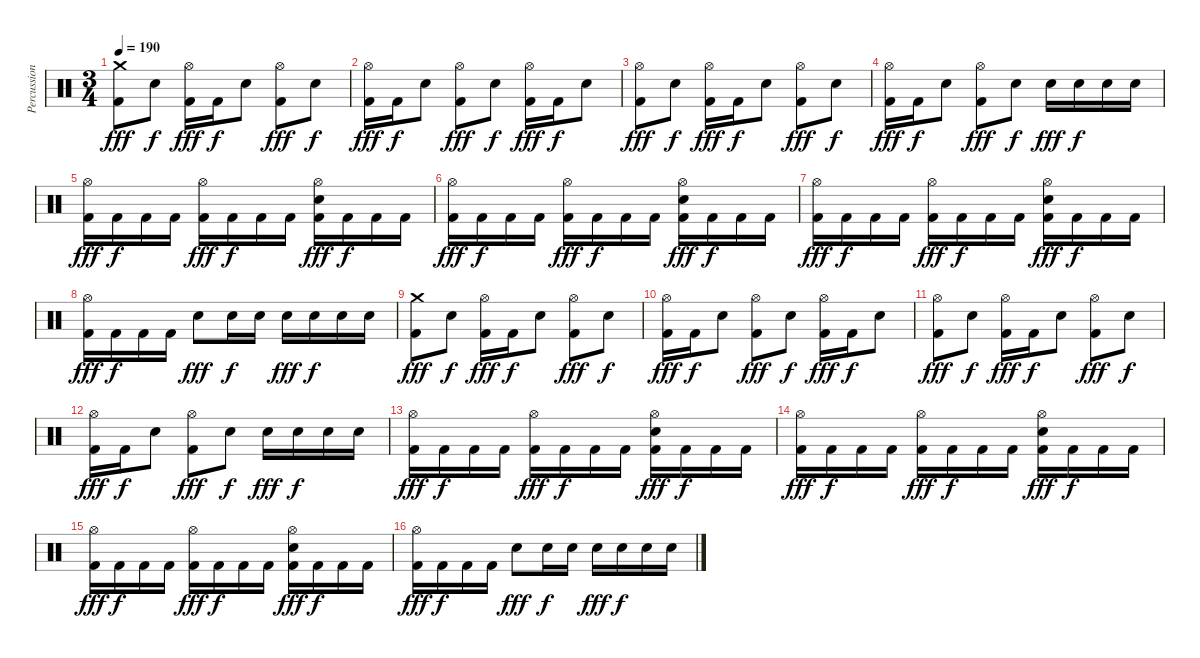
\track ("Percussions" "Percussion") {instrument percussion}
\staff {score}
\articulation defaults
\ts (3 4)
\tempo 190
\clef neutral
\ks c
("Crash medium (hit)" "Kick (hit) 2").8{dy fff} "Snare (hit) 2".8{dy f} ("Hi-Hat (open)" "Kick (hit) 2").16{dy fff} "Kick (hit) 2".16{dy f} "Snare (hit) 2".8 ("Hi-Hat (open)" "Kick (hit) 2").8{dy fff} "Snare (hit) 2".8{dy f} |
("Hi-Hat (open)" "Kick (hit) 2").16{dy fff} "Kick (hit) 2".16{dy f} "Snare (hit) 2".8 ("Hi-Hat (open)" "Kick (hit) 2").8{dy fff} "Snare (hit) 2".8{dy f} ("Hi-Hat (open)" "Kick (hit) 2").16{dy fff} "Kick (hit) 2".16{dy f} "Snare (hit) 2".8 |
("Hi-Hat (open)" "Kick (hit) 2").8{dy fff} "Snare (hit) 2".8{dy f} ("Hi-Hat (open)" "Kick (hit) 2").16{dy fff} "Kick (hit) 2".16{dy f} "Snare (hit) 2".8 ("Hi-Hat (open)" "Kick (hit) 2").8{dy fff} "Snare (hit) 2".8{dy f} |
("Hi-Hat (open)" "Kick (hit) 2").16{dy fff} "Kick (hit) 2".16{dy f} "Snare (hit) 2".8 ("Hi-Hat (open)" "Kick (hit) 2").8{dy fff} "Snare (hit) 2".8{dy f} "Snare (hit) 2".16{dy fff} "Snare (hit) 2".16{dy f} "Snare (hit) 2".16 "Snare (hit) 2".16 |
("Hi-Hat (open)" "Kick (hit) 2").16{dy fff} "Kick (hit) 2".16{dy f} "Kick (hit) 2".16 "Kick (hit) 2".16 ("Hi-Hat (open)" "Kick (hit) 2").16{dy fff} "Kick (hit) 2".16{dy f} "Kick (hit) 2".16 "Kick (hit) 2".16 ("Hi-Hat (open)" "Snare (hit) 2" "Kick (hit) 2").16{dy fff} "Kick (hit) 2".16{dy f} "Kick (hit) 2".16 "Kick (hit) 2".16 |
("Hi-Hat (open)" "Kick (hit) 2").16{dy fff} "Kick (hit) 2".16{dy f} "Kick (hit) 2".16 "Kick (hit) 2".16 ("Hi-Hat (open)" "Kick (hit) 2").16{dy fff} "Kick (hit) 2".16{dy f} "Kick (hit) 2".16 "Kick (hit) 2".16 ("Hi-Hat (open)" "Snare (hit) 2" "Kick (hit) 2").16{dy fff} "Kick (hit) 2".16{dy f} "Kick (hit) 2".16 "Kick (hit) 2".16 |
("Hi-Hat (open)" "Kick (hit) 2").16{dy fff} "Kick (hit) 2".16{dy f} "Kick (hit) 2".16 "Kick (hit) 2".16 ("Hi-Hat (open)" "Kick (hit) 2").16{dy fff} "Kick (hit) 2".16{dy f} "Kick (hit) 2".16 "Kick (hit) 2".16 ("Hi-Hat (open)" "Snare (hit) 2" "Kick (hit) 2").16{dy fff} "Kick (hit) 2".16{dy f} "Kick (hit) 2".16 "Kick (hit) 2".16 |
("Hi-Hat (open)" "Kick (hit) 2").16{dy fff} "Kick (hit) 2".16{dy f} "Kick (hit) 2".16 "Kick (hit) 2".16 "Snare (hit) 2".8{dy fff} "Snare (hit) 2".16{dy f} "Snare (hit) 2".16 "Snare (hit) 2".16{dy fff} "Snare (hit) 2".16{dy f} "Snare (hit) 2".16 "Snare (hit) 2".16 |
("Crash medium (hit)" "Kick (hit) 2").8{dy fff} "Snare (hit) 2".8{dy f} ("Hi-Hat (open)" "Kick (hit) 2").16{dy fff} "Kick (hit) 2".16{dy f} "Snare (hit) 2".8 ("Hi-Hat (open)" "Kick (hit) 2").8{dy fff} "Snare (hit) 2".8{dy f} |
("Hi-Hat (open)" "Kick (hit) 2").16{dy fff} "Kick (hit) 2".16{dy f} "Snare (hit) 2".8 ("Hi-Hat (open)" "Kick (hit) 2").8{dy fff} "Snare (hit) 2".8{dy f} ("Hi-Hat (open)" "Kick (hit) 2").16{dy fff} "Kick (hit) 2".16{dy f} "Snare (hit) 2".8 |
("Hi-Hat (open)" "Kick (hit) 2").8{dy fff} "Snare (hit) 2".8{dy f} ("Hi-Hat (open)" "Kick (hit) 2").16{dy fff} "Kick (hit) 2".16{dy f} "Snare (hit) 2".8 ("Hi-Hat (open)" "Kick (hit) 2").8{dy fff} "Snare (hit) 2".8{dy f} |
("Hi-Hat (open)" "Kick (hit) 2").16{dy fff} "Kick (hit) 2".16{dy f} "Snare (hit) 2".8 ("Hi-Hat (open)" "Kick (hit) 2").8{dy fff} "Snare (hit) 2".8{dy f} "Snare (hit) 2".16{dy fff} "Snare (hit) 2".16{dy f} "Snare (hit) 2".16 "Snare (hit) 2".16 |
("Hi-Hat (open)" "Kick (hit) 2").16{dy fff} "Kick (hit) 2".16{dy f} "Kick (hit) 2".16 "Kick (hit) 2".16 ("Hi-Hat (open)" "Kick (hit) 2").16{dy fff} "Kick (hit) 2".16{dy f} "Kick (hit) 2".16 "Kick (hit) 2".16 ("Hi-Hat (open)" "Snare (hit) 2" "Kick (hit) 2").16{dy fff} "Kick (hit) 2".16{dy f} "Kick (hit) 2".16 "Kick (hit) 2".16 |
("Hi-Hat (open)" "Kick (hit) 2").16{dy fff} "Kick (hit) 2".16{dy f} "Kick (hit) 2".16 "Kick (hit) 2".16 ("Hi-Hat (open)" "Kick (hit) 2").16{dy fff} "Kick (hit) 2".16{dy f} "Kick (hit) 2".16 "Kick (hit) 2".16 ("Hi-Hat (open)" "Snare (hit) 2" "Kick (hit) 2").16{dy fff} "Kick (hit) 2".16{dy f} "Kick (hit) 2".16 "Kick (hit) 2".16 |
("Hi-Hat (open)" "Kick (hit) 2").16{dy fff} "Kick (hit) 2".16{dy f} "Kick (hit) 2".16 "Kick (hit) 2".16 ("Hi-Hat (open)" "Kick (hit) 2").16{dy fff} "Kick (hit) 2".16{dy f} "Kick (hit) 2".16 "Kick (hit) 2".16 ("Hi-Hat (open)" "Snare (hit) 2" "Kick (hit) 2").16{dy fff} "Kick (hit) 2".16{dy f} "Kick (hit) 2".16 "Kick (hit) 2".16 |
("Hi-Hat (open)" "Kick (hit) 2").16{dy fff} "Kick (hit) 2".16{dy f} "Kick (hit) 2".16 "Kick (hit) 2".16 "Snare (hit) 2".8{dy fff} "Snare (hit) 2".16{dy f} "Snare (hit) 2".16 "Snare (hit) 2".16{dy fff} "Snare (hit) 2".16{dy f} "Snare (hit) 2".16 "Snare (hit) 2".16
